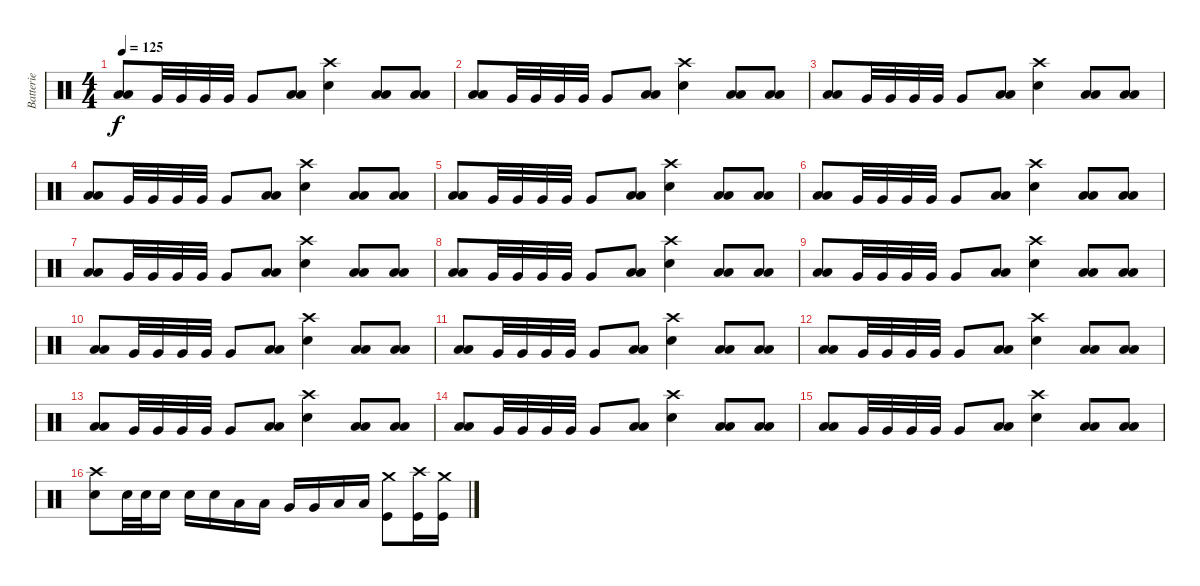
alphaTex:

\track ("Batterie" "Batterie") {instrument percussion}
\staff {score}
\articulation defaults
\ts (4 4)
\tempo 125
\clef neutral
\ks c
("Low Tom (hit)" "Low Floor Tom (hit)").8{dy f} "Very Low Tom (hit)".32 "Very Low Tom (hit)".32 "Very Low Tom (hit)".32 "Very Low Tom (hit)".32 "Very Low Tom (hit)".8 ("Low Tom (hit)" "Low Floor Tom (hit)").8 ("Crash high (hit)" "Electric Snare (hit)").4 ("Low Tom (hit)" "Low Floor Tom (hit)").8 ("Low Tom (hit)" "Low Floor Tom (hit)").8 |
("Low Tom (hit)" "Low Floor Tom (hit)").8 "Very Low Tom (hit)".32 "Very Low Tom (hit)".32 "Very Low Tom (hit)".32 "Very Low Tom (hit)".32 "Very Low Tom (hit)".8 ("Low Tom (hit)" "Low Floor Tom (hit)").8 ("Crash high (hit)" "Electric Snare (hit)").4 ("Low Tom (hit)" "Low Floor Tom (hit)").8 ("Low Tom (hit)" "Low Floor Tom (hit)").8 |
("Low Tom (hit)" "Low Floor Tom (hit)").8 "Very Low Tom (hit)".32 "Very Low Tom (hit)".32 "Very Low Tom (hit)".32 "Very Low Tom (hit)".32 "Very Low Tom (hit)".8 ("Low Tom (hit)" "Low Floor Tom (hit)").8 ("Crash high (hit)" "Electric Snare (hit)").4 ("Low Tom (hit)" "Low Floor Tom (hit)").8 ("Low Tom (hit)" "Low Floor Tom (hit)").8 |
("Low Tom (hit)" "Low Floor Tom (hit)").8 "Very Low Tom (hit)".32 "Very Low Tom (hit)".32 "Very Low Tom (hit)".32 "Very Low Tom (hit)".32 "Very Low Tom (hit)".8 ("Low Tom (hit)" "Low Floor Tom (hit)").8 ("Crash high (hit)" "Electric Snare (hit)").4 ("Low Tom (hit)" "Low Floor Tom (hit)").8 ("Low Tom (hit)" "Low Floor Tom (hit)").8 |
("Low Tom (hit)" "Low Floor Tom (hit)").8 "Very Low Tom (hit)".32 "Very Low Tom (hit)".32 "Very Low Tom (hit)".32 "Very Low Tom (hit)".32 "Very Low Tom (hit)".8 ("Low Tom (hit)" "Low Floor Tom (hit)").8 ("Crash high (hit)" "Electric Snare (hit)").4 ("Low Tom (hit)" "Low Floor Tom (hit)").8 ("Low Tom (hit)" "Low Floor Tom (hit)").8 |
("Low Tom (hit)" "Low Floor Tom (hit)").8 "Very Low Tom (hit)".32 "Very Low Tom (hit)".32 "Very Low Tom (hit)".32 "Very Low Tom (hit)".32 "Very Low Tom (hit)".8 ("Low Tom (hit)" "Low Floor Tom (hit)").8 ("Crash high (hit)" "Electric Snare (hit)").4 ("Low Tom (hit)" "Low Floor Tom (hit)").8 ("Low Tom (hit)" "Low Floor Tom (hit)").8 |
("Low Tom (hit)" "Low Floor Tom (hit)").8 "Very Low Tom (hit)".32 "Very Low Tom (hit)".32 "Very Low Tom (hit)".32 "Very Low Tom (hit)".32 "Very Low Tom (hit)".8 ("Low Tom (hit)" "Low Floor Tom (hit)").8 ("Crash high (hit)" "Electric Snare (hit)").4 ("Low Tom (hit)" "Low Floor Tom (hit)").8 ("Low Tom (hit)" "Low Floor Tom (hit)").8 |
("Low Tom (hit)" "Low Floor Tom (hit)").8 "Very Low Tom (hit)".32 "Very Low Tom (hit)".32 "Very Low Tom (hit)".32 "Very Low Tom (hit)".32 "Very Low Tom (hit)".8 ("Low Tom (hit)" "Low Floor Tom (hit)").8 ("Crash high (hit)" "Electric Snare (hit)").4 ("Low Tom (hit)" "Low Floor Tom (hit)").8 ("Low Tom (hit)" "Low Floor Tom (hit)").8 |
("Low Tom (hit)" "Low Floor Tom (hit)").8 "Very Low Tom (hit)".32 "Very Low Tom (hit)".32 "Very Low Tom (hit)".32 "Very Low Tom (hit)".32 "Very Low Tom (hit)".8 ("Low Tom (hit)" "Low Floor Tom (hit)").8 ("Crash high (hit)" "Electric Snare (hit)").4 ("Low Tom (hit)" "Low Floor Tom (hit)").8 ("Low Tom (hit)" "Low Floor Tom (hit)").8 |
("Low Tom (hit)" "Low Floor Tom (hit)").8 "Very Low Tom (hit)".32 "Very Low Tom (hit)".32 "Very Low Tom (hit)".32 "Very Low Tom (hit)".32 "Very Low Tom (hit)".8 ("Low Tom (hit)" "Low Floor Tom (hit)").8 ("Crash high (hit)" "Electric Snare (hit)").4 ("Low Tom (hit)" "Low Floor Tom (hit)").8 ("Low Tom (hit)" "Low Floor Tom (hit)").8 |
("Low Tom (hit)" "Low Floor Tom (hit)").8 "Very Low Tom (hit)".32 "Very Low Tom (hit)".32 "Very Low Tom (hit)".32 "Very Low Tom (hit)".32 "Very Low Tom (hit)".8 ("Low Tom (hit)" "Low Floor Tom (hit)").8 ("Crash high (hit)" "Electric Snare (hit)").4 ("Low Tom (hit)" "Low Floor Tom (hit)").8 ("Low Tom (hit)" "Low Floor Tom (hit)").8 |
("Low Tom (hit)" "Low Floor Tom (hit)").8 "Very Low Tom (hit)".32 "Very Low Tom (hit)".32 "Very Low Tom (hit)".32 "Very Low Tom (hit)".32 "Very Low Tom (hit)".8 ("Low Tom (hit)" "Low Floor Tom (hit)").8 ("Crash high (hit)" "Electric Snare (hit)").4 ("Low Tom (hit)" "Low Floor Tom (hit)").8 ("Low Tom (hit)" "Low Floor Tom (hit)").8 |
("Low Tom (hit)" "Low Floor Tom (hit)").8 "Very Low Tom (hit)".32 "Very Low Tom (hit)".32 "Very Low Tom (hit)".32 "Very Low Tom (hit)".32 "Very Low Tom (hit)".8 ("Low Tom (hit)" "Low Floor Tom (hit)").8 ("Crash high (hit)" "Electric Snare (hit)").4 ("Low Tom (hit)" "Low Floor Tom (hit)").8 ("Low Tom (hit)" "Low Floor Tom (hit)").8 |
("Low Tom (hit)" "Low Floor Tom (hit)").8 "Very Low Tom (hit)".32 "Very Low Tom (hit)".32 "Very Low Tom (hit)".32 "Very Low Tom (hit)".32 "Very Low Tom (hit)".8 ("Low Tom (hit)" "Low Floor Tom (hit)").8 ("Crash high (hit)" "Electric Snare (hit)").4 ("Low Tom (hit)" "Low Floor Tom (hit)").8 ("Low Tom (hit)" "Low Floor Tom (hit)").8 |
("Low Tom (hit)" "Low Floor Tom (hit)").8 "Very Low Tom (hit)".32 "Very Low Tom (hit)".32 "Very Low Tom (hit)".32 "Very Low Tom (hit)".32 "Very Low Tom (hit)".8 ("Low Tom (hit)" "Low Floor Tom (hit)").8 ("Crash high (hit)" "Electric Snare (hit)").4 ("Low Tom (hit)" "Low Floor Tom (hit)").8 ("Low Tom (hit)" "Low Floor Tom (hit)").8 |
("Crash high (hit)" "Electric Snare (hit)").8 "Electric Snare (hit)".32 "Electric Snare (hit)".32 "Electric Snare (hit)".16 "Electric Snare (hit)".16 "Electric Snare (hit)".16 "Low Tom (hit)".16 "Low Tom (hit)".16 "Very Low Tom (hit)".16 "Very Low Tom (hit)".16 "Low Floor Tom (hit)".16 "Low Floor Tom (hit)".16 ("Crash medium (hit)" "Kick (hit)").8 ("Crash high (hit)" "Kick (hit)").16 ("Crash medium (hit)" "Kick (hit)").16
